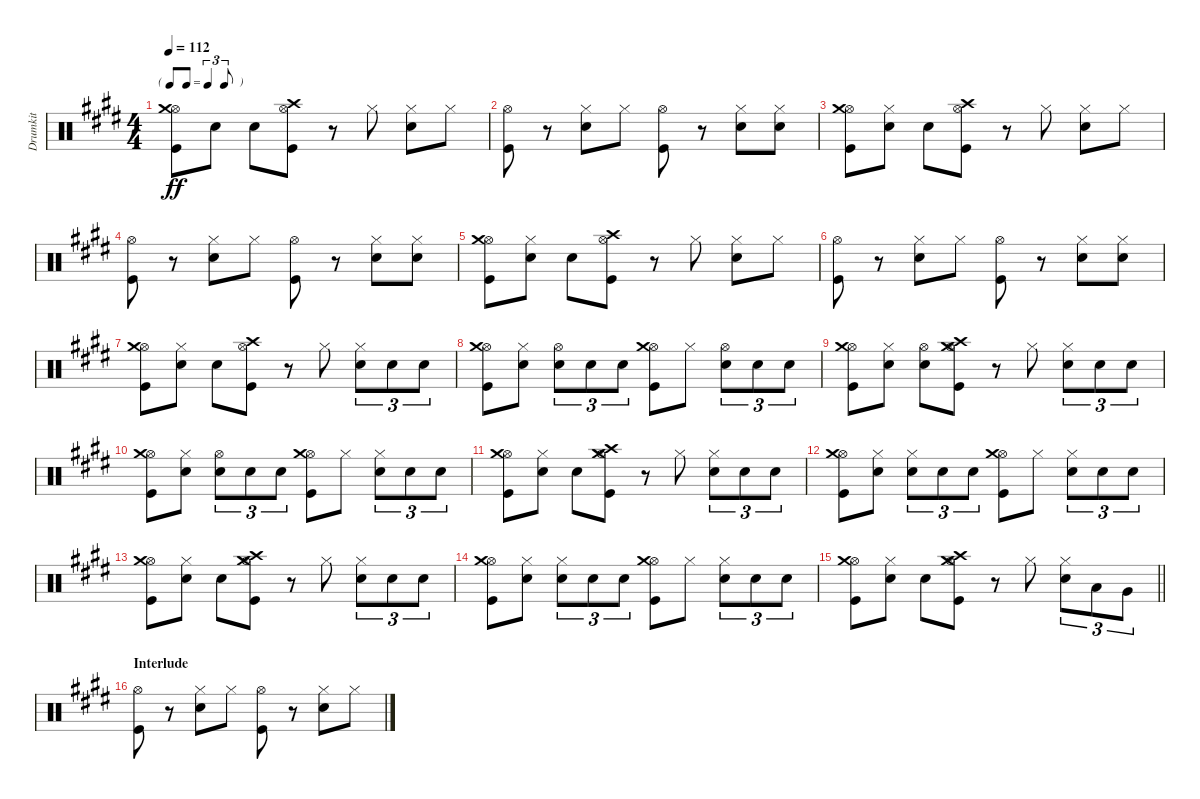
\track ("Drumkit" "Drumkit") {instrument percussion}
\staff {score}
\articulation defaults
\ts (4 4)
\tf triplet8th
\tempo 112
\clef neutral
\ks e
("Hi-Hat (open)" "Kick (hit)" "Crash medium (hit)").8{dy ff} "Snare (hit) 2".8 "Snare (hit) 2".8 ("Kick (hit)" "Hi-Hat (open)" "Crash high (hit)").8 r.8 "Hi-Hat (closed)".8 ("Snare (hit) 2" "Hi-Hat (closed)").8 "Hi-Hat (closed)".8 |
("Hi-Hat (open)" "Kick (hit)").8 r.8 ("Snare (hit) 2" "Hi-Hat (closed)").8 "Hi-Hat (closed)".8 ("Kick (hit)" "Hi-Hat (open)").8 r.8 ("Snare (hit) 2" "Hi-Hat (closed)").8 ("Hi-Hat (closed)" "Snare (hit) 2").8 |
("Hi-Hat (open)" "Kick (hit)" "Crash medium (hit)").8 ("Hi-Hat (closed)" "Snare (hit) 2").8 "Snare (hit) 2".8 ("Kick (hit)" "Hi-Hat (open)" "Crash high (hit)").8 r.8 "Hi-Hat (closed)".8 ("Snare (hit) 2" "Hi-Hat (closed)").8 "Hi-Hat (closed)".8 |
("Hi-Hat (open)" "Kick (hit)").8 r.8 ("Snare (hit) 2" "Hi-Hat (closed)").8 "Hi-Hat (closed)".8 ("Kick (hit)" "Hi-Hat (open)").8 r.8 ("Snare (hit) 2" "Hi-Hat (closed)").8 ("Hi-Hat (closed)" "Snare (hit) 2").8 |
("Hi-Hat (open)" "Kick (hit)" "Crash medium (hit)").8 ("Hi-Hat (closed)" "Snare (hit) 2").8 "Snare (hit) 2".8 ("Kick (hit)" "Hi-Hat (open)" "Crash high (hit)").8 r.8 "Hi-Hat (closed)".8 ("Snare (hit) 2" "Hi-Hat (closed)").8 "Hi-Hat (closed)".8 |
("Hi-Hat (open)" "Kick (hit)").8 r.8 ("Snare (hit) 2" "Hi-Hat (closed)").8 "Hi-Hat (closed)".8 ("Kick (hit)" "Hi-Hat (open)").8 r.8 ("Snare (hit) 2" "Hi-Hat (closed)").8 ("Hi-Hat (closed)" "Snare (hit) 2").8 |
("Hi-Hat (open)" "Kick (hit)" "Crash medium (hit)").8 ("Hi-Hat (closed)" "Snare (hit) 2").8 "Snare (hit) 2".8 ("Kick (hit)" "Hi-Hat (open)" "Crash high (hit)").8 r.8 "Hi-Hat (closed)".8 ("Snare (hit) 2" "Hi-Hat (closed)").8{tu (3 2)} "Snare (hit) 2".8{tu (3 2)} "Snare (hit) 2".8{tu (3 2)} |
("Hi-Hat (open)" "Kick (hit)" "Crash medium (hit)").8 ("Hi-Hat (closed)" "Snare (hit) 2").8 ("Snare (hit) 2" "Hi-Hat (open)").8{tu (3 2)} "Snare (hit) 2".8{tu (3 2)} "Snare (hit) 2".8{tu (3 2)} ("Hi-Hat (open)" "Kick (hit)" "Crash medium (hit)").8 "Hi-Hat (closed)".8 ("Snare (hit) 2" "Hi-Hat (open)").8{tu (3 2)} "Snare (hit) 2".8{tu (3 2)} "Snare (hit) 2".8{tu (3 2)} |
("Hi-Hat (open)" "Kick (hit)" "Crash medium (hit)").8 ("Hi-Hat (closed)" "Snare (hit) 2").8 ("Snare (hit) 2" "Hi-Hat (open)").8 ("Kick (hit)" "Hi-Hat (open)" "Crash high (hit)" "Crash medium (hit)").8 r.8 "Hi-Hat (closed)".8 ("Snare (hit) 2" "Hi-Hat (closed)").8{tu (3 2)} "Snare (hit) 2".8{tu (3 2)} "Snare (hit) 2".8{tu (3 2)} |
("Hi-Hat (open)" "Kick (hit)" "Crash medium (hit)").8 ("Hi-Hat (closed)" "Snare (hit) 2").8 ("Snare (hit) 2" "Hi-Hat (open)").8{tu (3 2)} "Snare (hit) 2".8{tu (3 2)} "Snare (hit) 2".8{tu (3 2)} ("Hi-Hat (open)" "Kick (hit)" "Crash medium (hit)").8 "Hi-Hat (closed)".8 ("Snare (hit) 2" "Hi-Hat (closed)").8{tu (3 2)} "Snare (hit) 2".8{tu (3 2)} "Snare (hit) 2".8{tu (3 2)} |
("Hi-Hat (open)" "Kick (hit)" "Crash medium (hit)").8 ("Hi-Hat (closed)" "Snare (hit) 2").8 "Snare (hit) 2".8 ("Kick (hit)" "Hi-Hat (open)" "Crash high (hit)" "Crash medium (hit)").8 r.8 "Hi-Hat (closed)".8 ("Snare (hit) 2" "Hi-Hat (closed)").8{tu (3 2)} "Snare (hit) 2".8{tu (3 2)} "Snare (hit) 2".8{tu (3 2)} |
("Hi-Hat (open)" "Kick (hit)" "Crash medium (hit)").8 ("Hi-Hat (closed)" "Snare (hit) 2").8 ("Snare (hit) 2" "Hi-Hat (closed)").8{tu (3 2)} "Snare (hit) 2".8{tu (3 2)} "Snare (hit) 2".8{tu (3 2)} ("Hi-Hat (open)" "Kick (hit)" "Crash medium (hit)").8 "Hi-Hat (closed)".8 ("Snare (hit) 2" "Hi-Hat (closed)").8{tu (3 2)} "Snare (hit) 2".8{tu (3 2)} "Snare (hit) 2".8{tu (3 2)} |
("Hi-Hat (open)" "Kick (hit)" "Crash medium (hit)").8 ("Hi-Hat (closed)" "Snare (hit) 2").8 "Snare (hit) 2".8 ("Kick (hit)" "Hi-Hat (open)" "Crash high (hit)" "Crash medium (hit)").8 r.8 "Hi-Hat (closed)".8 ("Snare (hit) 2" "Hi-Hat (closed)").8{tu (3 2)} "Snare (hit) 2".8{tu (3 2)} "Snare (hit) 2".8{tu (3 2)} |
("Hi-Hat (open)" "Kick (hit)" "Crash medium (hit)").8 ("Hi-Hat (closed)" "Snare (hit) 2").8 ("Snare (hit) 2" "Hi-Hat (closed)").8{tu (3 2)} "Snare (hit) 2".8{tu (3 2)} "Snare (hit) 2".8{tu (3 2)} ("Hi-Hat (open)" "Kick (hit)" "Crash medium (hit)").8 "Hi-Hat (closed)".8 ("Snare (hit) 2" "Hi-Hat (closed)").8{tu (3 2)} "Snare (hit) 2".8{tu (3 2)} "Snare (hit) 2".8{tu (3 2)} |
\barLineRight lightlight
("Hi-Hat (open)" "Kick (hit)" "Crash medium (hit)").8 ("Hi-Hat (closed)" "Snare (hit) 2").8 "Snare (hit) 2".8 ("Kick (hit)" "Hi-Hat (open)" "Crash high (hit)" "Crash medium (hit)").8 r.8 "Hi-Hat (closed)".8 ("Hi-Hat (closed)" "Snare (hit) 2").8{tu (3 2)} "Low Tom (hit)".8{tu (3 2)} "Very Low Tom (hit)".8{tu (3 2)} |
\section ("" "Interlude")
("Hi-Hat (open)" "Kick (hit)").8 r.8 ("Snare (hit) 2" "Hi-Hat (closed)").8 "Hi-Hat (closed)".8 ("Hi-Hat (open)" "Kick (hit)").8 r.8 ("Snare (hit) 2" "Hi-Hat (closed)").8 "Hi-Hat (closed)".8
